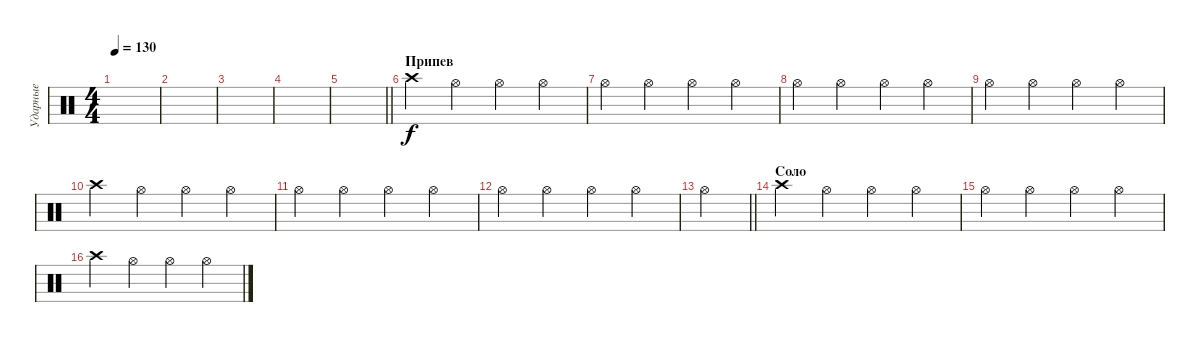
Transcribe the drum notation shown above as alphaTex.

\track ("Ударные" "Ударные") {instrument percussion}
\staff {score}
\articulation defaults
\ts (4 4)
\tempo 130
\clef neutral
\ks c
|
|
|
|
\barLineRight lightlight
|
\section ("" "Припев")
"Crash high (hit)".4 "Hi-Hat (open)".4 "Hi-Hat (open)".4 "Hi-Hat (open)".4 |
"Hi-Hat (open)".4 "Hi-Hat (open)".4 "Hi-Hat (open)".4 "Hi-Hat (open)".4 |
"Hi-Hat (open)".4 "Hi-Hat (open)".4 "Hi-Hat (open)".4 "Hi-Hat (open)".4 |
"Hi-Hat (open)".4 "Hi-Hat (open)".4 "Hi-Hat (open)".4 "Hi-Hat (open)".4 |
"Crash high (hit)".4 "Hi-Hat (open)".4 "Hi-Hat (open)".4 "Hi-Hat (open)".4 |
"Hi-Hat (open)".4 "Hi-Hat (open)".4 "Hi-Hat (open)".4 "Hi-Hat (open)".4 |
"Hi-Hat (open)".4 "Hi-Hat (open)".4 "Hi-Hat (open)".4 "Hi-Hat (open)".4 |
\barLineRight lightlight "Hi-Hat (open)".4
|
\section ("" "Соло")
"Crash high (hit)".4 "Hi-Hat (open)".4 "Hi-Hat (open)".4 "Hi-Hat (open)".4 |
"Hi-Hat (open)".4 "Hi-Hat (open)".4 "Hi-Hat (open)".4 "Hi-Hat (open)".4 |
"Crash high (hit)".4 "Hi-Hat (open)".4 "Hi-Hat (open)".4 "Hi-Hat (open)".4
